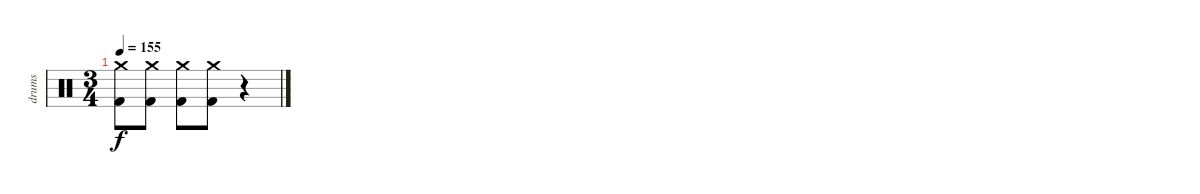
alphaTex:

\track ("drums" "drums") {instrument percussion}
\staff {score}
\articulation defaults
\ts (3 4)
\tempo 155
\clef neutral
\ks c
("Crash medium (hit)" "Kick (hit) 2").8{dy f} ("Crash medium (hit)" "Kick (hit) 2").8 ("Crash medium (hit)" "Kick (hit) 2").8 ("Crash medium (hit)" "Kick (hit) 2").8 r.4
